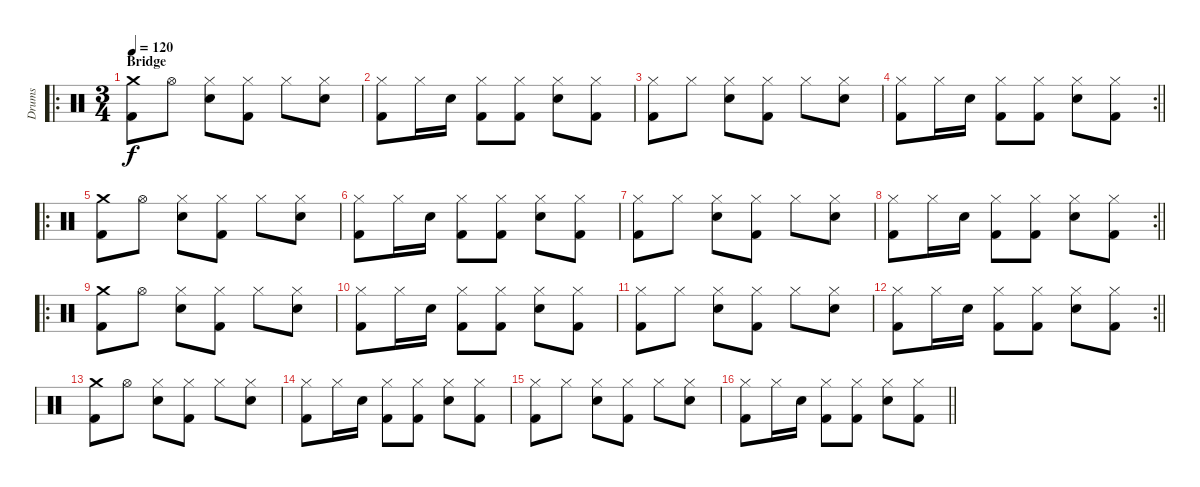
\track ("Drums" "Drums") {instrument percussion}
\staff {score}
\articulation defaults
\ro
\ts (3 4)
\section ("" "Bridge")
\tempo 120
\clef neutral
\ks c
("Kick (hit) 2" "Crash medium (hit)").8{dy f} "Hi-Hat (open)".8 ("Electric Snare (hit)" "Hi-Hat (closed)").8 ("Kick (hit) 2" "Hi-Hat (closed)").8 "Hi-Hat (closed)".8 ("Electric Snare (hit)" "Hi-Hat (closed)").8 |
("Kick (hit) 2" "Hi-Hat (closed)").8 "Hi-Hat (closed)".16 "Electric Snare (hit)".16 ("Kick (hit) 2" "Hi-Hat (closed)").8 ("Kick (hit) 2" "Hi-Hat (closed)").8 ("Electric Snare (hit)" "Hi-Hat (closed)").8 ("Kick (hit) 2" "Hi-Hat (closed)").8 |
("Kick (hit) 2" "Hi-Hat (closed)").8 "Hi-Hat (closed)".8 ("Electric Snare (hit)" "Hi-Hat (closed)").8 ("Kick (hit) 2" "Hi-Hat (closed)").8 "Hi-Hat (closed)".8 ("Electric Snare (hit)" "Hi-Hat (closed)").8 |
\rc 2
\barLineRight lightlight
("Kick (hit) 2" "Hi-Hat (closed)").8 "Hi-Hat (closed)".16 "Electric Snare (hit)".16 ("Kick (hit) 2" "Hi-Hat (closed)").8 ("Kick (hit) 2" "Hi-Hat (closed)").8 ("Electric Snare (hit)" "Hi-Hat (closed)").8 ("Kick (hit) 2" "Hi-Hat (closed)").8 |
\ro
\section ("" "")
("Kick (hit) 2" "Crash medium (hit)").8 "Hi-Hat (open)".8 ("Electric Snare (hit)" "Hi-Hat (closed)").8 ("Kick (hit) 2" "Hi-Hat (closed)").8 "Hi-Hat (closed)".8 ("Electric Snare (hit)" "Hi-Hat (closed)").8 |
("Kick (hit) 2" "Hi-Hat (closed)").8 "Hi-Hat (closed)".16 "Electric Snare (hit)".16 ("Kick (hit) 2" "Hi-Hat (closed)").8 ("Kick (hit) 2" "Hi-Hat (closed)").8 ("Electric Snare (hit)" "Hi-Hat (closed)").8 ("Kick (hit) 2" "Hi-Hat (closed)").8 |
("Kick (hit) 2" "Hi-Hat (closed)").8 "Hi-Hat (closed)".8 ("Electric Snare (hit)" "Hi-Hat (closed)").8 ("Kick (hit) 2" "Hi-Hat (closed)").8 "Hi-Hat (closed)".8 ("Electric Snare (hit)" "Hi-Hat (closed)").8 |
\rc 2
\barLineRight lightlight
("Kick (hit) 2" "Hi-Hat (closed)").8 "Hi-Hat (closed)".16 "Electric Snare (hit)".16 ("Kick (hit) 2" "Hi-Hat (closed)").8 ("Kick (hit) 2" "Hi-Hat (closed)").8 ("Electric Snare (hit)" "Hi-Hat (closed)").8 ("Kick (hit) 2" "Hi-Hat (closed)").8 |
\ro
("Kick (hit) 2" "Crash medium (hit)").8 "Hi-Hat (open)".8 ("Electric Snare (hit)" "Hi-Hat (closed)").8 ("Kick (hit) 2" "Hi-Hat (closed)").8 "Hi-Hat (closed)".8 ("Electric Snare (hit)" "Hi-Hat (closed)").8 |
("Kick (hit) 2" "Hi-Hat (closed)").8 "Hi-Hat (closed)".16 "Electric Snare (hit)".16 ("Kick (hit) 2" "Hi-Hat (closed)").8 ("Kick (hit) 2" "Hi-Hat (closed)").8 ("Electric Snare (hit)" "Hi-Hat (closed)").8 ("Kick (hit) 2" "Hi-Hat (closed)").8 |
("Kick (hit) 2" "Hi-Hat (closed)").8 "Hi-Hat (closed)".8 ("Electric Snare (hit)" "Hi-Hat (closed)").8 ("Kick (hit) 2" "Hi-Hat (closed)").8 "Hi-Hat (closed)".8 ("Electric Snare (hit)" "Hi-Hat (closed)").8 |
\rc 2
\barLineRight lightlight
("Kick (hit) 2" "Hi-Hat (closed)").8 "Hi-Hat (closed)".16 "Electric Snare (hit)".16 ("Kick (hit) 2" "Hi-Hat (closed)").8 ("Kick (hit) 2" "Hi-Hat (closed)").8 ("Electric Snare (hit)" "Hi-Hat (closed)").8 ("Kick (hit) 2" "Hi-Hat (closed)").8 |
("Kick (hit) 2" "Crash medium (hit)").8 "Hi-Hat (open)".8 ("Electric Snare (hit)" "Hi-Hat (closed)").8 ("Kick (hit) 2" "Hi-Hat (closed)").8 "Hi-Hat (closed)".8 ("Electric Snare (hit)" "Hi-Hat (closed)").8 |
("Kick (hit) 2" "Hi-Hat (closed)").8 "Hi-Hat (closed)".16 "Electric Snare (hit)".16 ("Kick (hit) 2" "Hi-Hat (closed)").8 ("Kick (hit) 2" "Hi-Hat (closed)").8 ("Electric Snare (hit)" "Hi-Hat (closed)").8 ("Kick (hit) 2" "Hi-Hat (closed)").8 |
("Kick (hit) 2" "Hi-Hat (closed)").8 "Hi-Hat (closed)".8 ("Electric Snare (hit)" "Hi-Hat (closed)").8 ("Kick (hit) 2" "Hi-Hat (closed)").8 "Hi-Hat (closed)".8 ("Electric Snare (hit)" "Hi-Hat (closed)").8 |
\barLineRight lightlight
("Kick (hit) 2" "Hi-Hat (closed)").8 "Hi-Hat (closed)".16 "Electric Snare (hit)".16 ("Kick (hit) 2" "Hi-Hat (closed)").8 ("Kick (hit) 2" "Hi-Hat (closed)").8 ("Electric Snare (hit)" "Hi-Hat (closed)").8 ("Kick (hit) 2" "Hi-Hat (closed)").8
